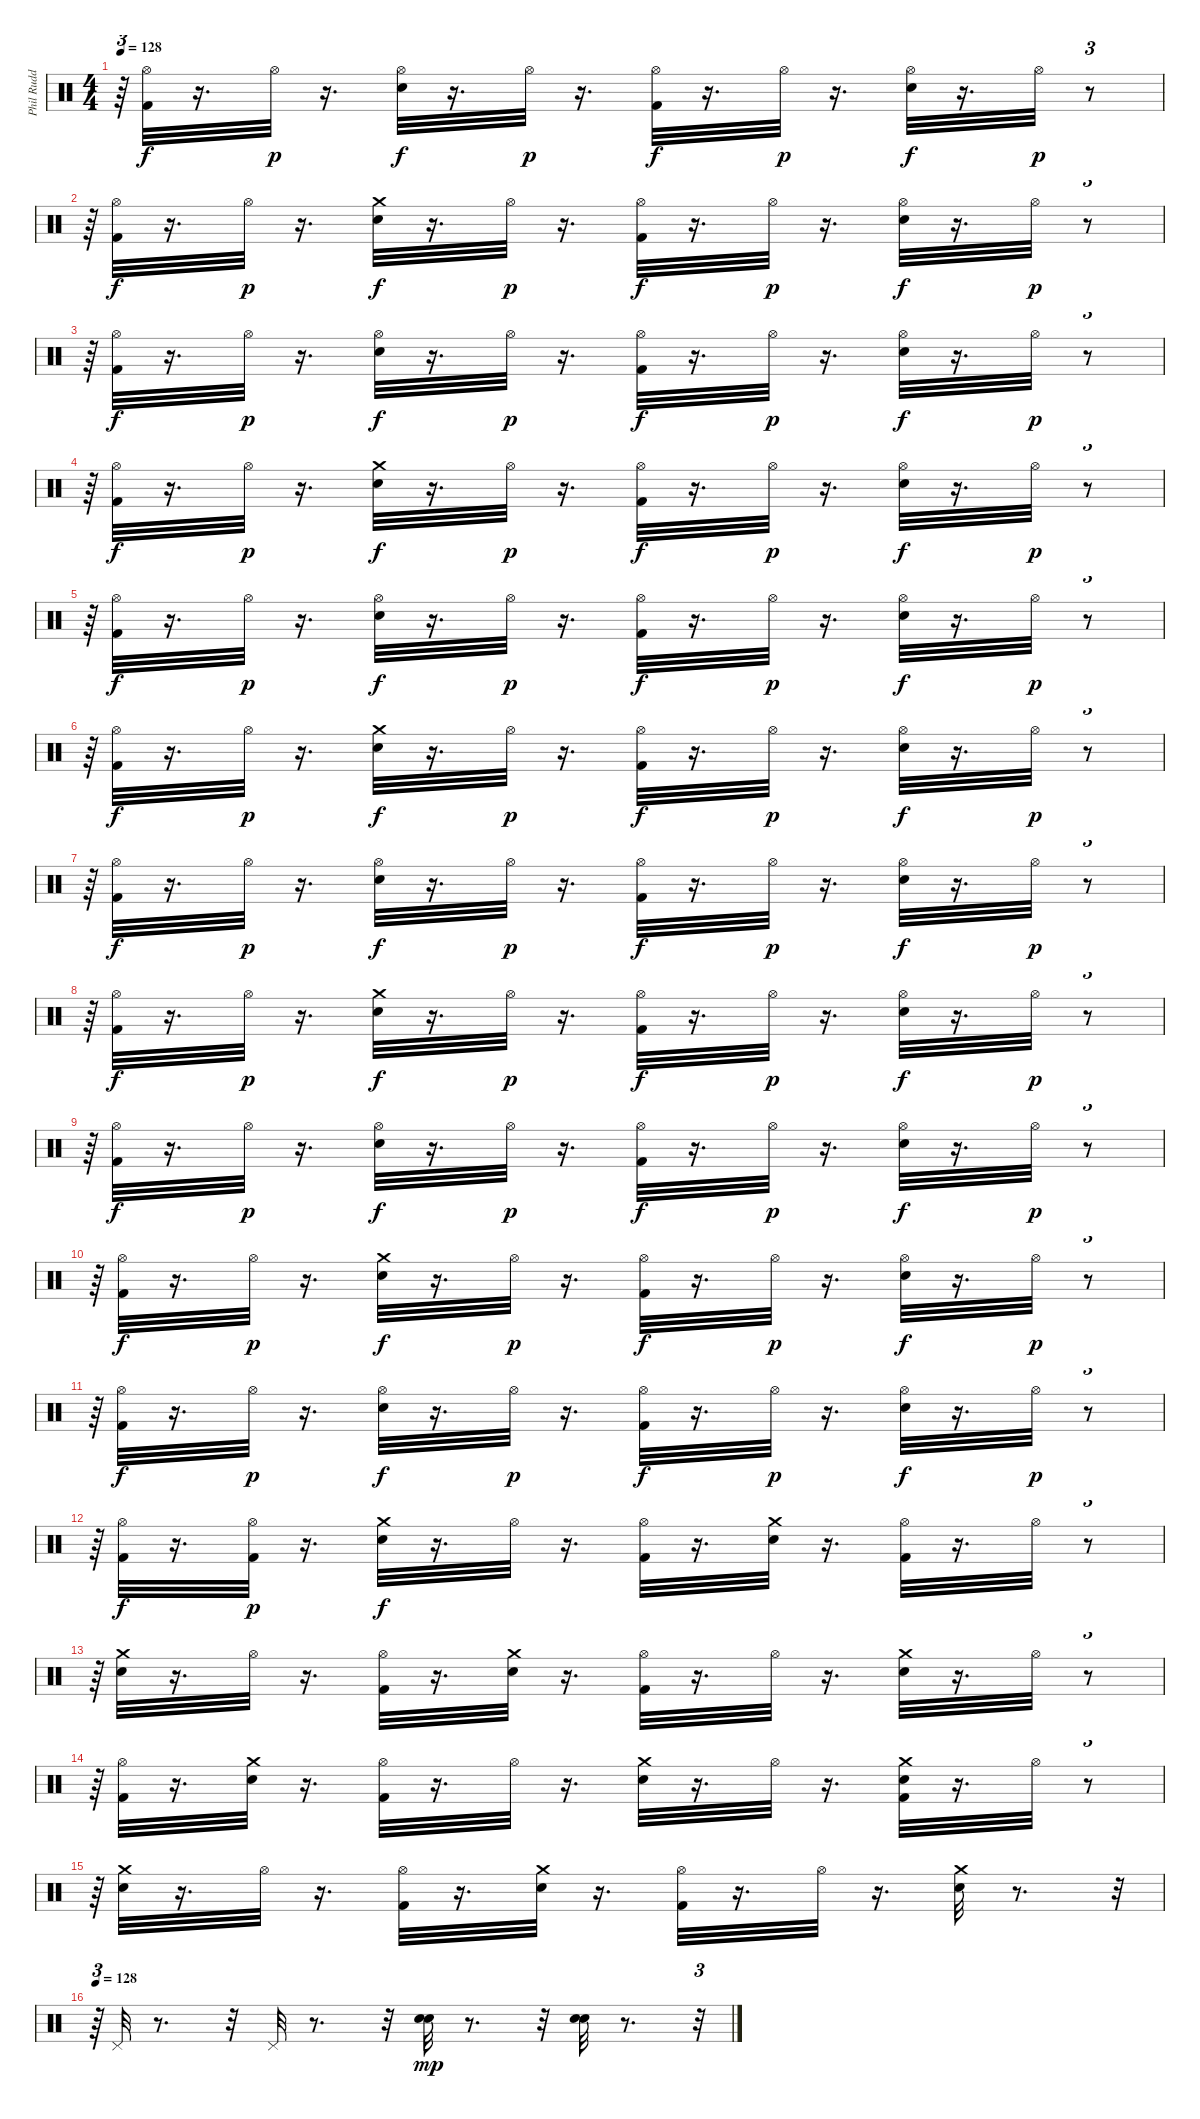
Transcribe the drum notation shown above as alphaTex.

\track ("Phil Rudd" "Phil Rudd") {instrument percussion}
\staff {score}
\articulation defaults
\ts (4 4)
\tempo 128
\clef neutral
\ks c
r.64{tu (3 2) dy p} ("Hi-Hat (open)" "Kick (hit) 2").32{dy f} r.16{d} "Hi-Hat (open)".32{dy p} r.16{d} ("Hi-Hat (open)" "Electric Snare (hit)").32{dy f} r.16{d} "Hi-Hat (open)".32{dy p} r.16{d} ("Hi-Hat (open)" "Kick (hit) 2").32{dy f} r.16{d} "Hi-Hat (open)".32{dy p} r.16{d} ("Hi-Hat (open)" "Electric Snare (hit)").32{dy f} r.16{d} "Hi-Hat (open)".32{dy p} r.8{tu (3 2)} |
r.64{tu (3 2)} ("Hi-Hat (open)" "Kick (hit) 2").32{dy f} r.16{d} "Hi-Hat (open)".32{dy p} r.16{d} ("Crash medium (hit)" "Electric Snare (hit)").32{dy f} r.16{d} "Hi-Hat (open)".32{dy p} r.16{d} ("Hi-Hat (open)" "Kick (hit) 2").32{dy f} r.16{d} "Hi-Hat (open)".32{dy p} r.16{d} ("Hi-Hat (open)" "Electric Snare (hit)").32{dy f} r.16{d} "Hi-Hat (open)".32{dy p} r.8{tu (3 2)} |
r.64{tu (3 2)} ("Hi-Hat (open)" "Kick (hit) 2").32{dy f} r.16{d} "Hi-Hat (open)".32{dy p} r.16{d} ("Hi-Hat (open)" "Electric Snare (hit)").32{dy f} r.16{d} "Hi-Hat (open)".32{dy p} r.16{d} ("Hi-Hat (open)" "Kick (hit) 2").32{dy f} r.16{d} "Hi-Hat (open)".32{dy p} r.16{d} ("Hi-Hat (open)" "Electric Snare (hit)").32{dy f} r.16{d} "Hi-Hat (open)".32{dy p} r.8{tu (3 2)} |
r.64{tu (3 2)} ("Hi-Hat (open)" "Kick (hit) 2").32{dy f} r.16{d} "Hi-Hat (open)".32{dy p} r.16{d} ("Crash medium (hit)" "Electric Snare (hit)").32{dy f} r.16{d} "Hi-Hat (open)".32{dy p} r.16{d} ("Hi-Hat (open)" "Kick (hit) 2").32{dy f} r.16{d} "Hi-Hat (open)".32{dy p} r.16{d} ("Hi-Hat (open)" "Electric Snare (hit)").32{dy f} r.16{d} "Hi-Hat (open)".32{dy p} r.8{tu (3 2)} |
r.64{tu (3 2)} ("Hi-Hat (open)" "Kick (hit) 2").32{dy f} r.16{d} "Hi-Hat (open)".32{dy p} r.16{d} ("Hi-Hat (open)" "Electric Snare (hit)").32{dy f} r.16{d} "Hi-Hat (open)".32{dy p} r.16{d} ("Hi-Hat (open)" "Kick (hit) 2").32{dy f} r.16{d} "Hi-Hat (open)".32{dy p} r.16{d} ("Hi-Hat (open)" "Electric Snare (hit)").32{dy f} r.16{d} "Hi-Hat (open)".32{dy p} r.8{tu (3 2)} |
r.64{tu (3 2)} ("Hi-Hat (open)" "Kick (hit) 2").32{dy f} r.16{d} "Hi-Hat (open)".32{dy p} r.16{d} ("Crash medium (hit)" "Electric Snare (hit)").32{dy f} r.16{d} "Hi-Hat (open)".32{dy p} r.16{d} ("Hi-Hat (open)" "Kick (hit) 2").32{dy f} r.16{d} "Hi-Hat (open)".32{dy p} r.16{d} ("Hi-Hat (open)" "Electric Snare (hit)").32{dy f} r.16{d} "Hi-Hat (open)".32{dy p} r.8{tu (3 2)} |
r.64{tu (3 2)} ("Hi-Hat (open)" "Kick (hit) 2").32{dy f} r.16{d} "Hi-Hat (open)".32{dy p} r.16{d} ("Hi-Hat (open)" "Electric Snare (hit)").32{dy f} r.16{d} "Hi-Hat (open)".32{dy p} r.16{d} ("Hi-Hat (open)" "Kick (hit) 2").32{dy f} r.16{d} "Hi-Hat (open)".32{dy p} r.16{d} ("Hi-Hat (open)" "Electric Snare (hit)").32{dy f} r.16{d} "Hi-Hat (open)".32{dy p} r.8{tu (3 2)} |
r.64{tu (3 2)} ("Hi-Hat (open)" "Kick (hit) 2").32{dy f} r.16{d} "Hi-Hat (open)".32{dy p} r.16{d} ("Crash medium (hit)" "Electric Snare (hit)").32{dy f} r.16{d} "Hi-Hat (open)".32{dy p} r.16{d} ("Hi-Hat (open)" "Kick (hit) 2").32{dy f} r.16{d} "Hi-Hat (open)".32{dy p} r.16{d} ("Hi-Hat (open)" "Electric Snare (hit)").32{dy f} r.16{d} "Hi-Hat (open)".32{dy p} r.8{tu (3 2)} |
r.64{tu (3 2)} ("Hi-Hat (open)" "Kick (hit) 2").32{dy f} r.16{d} "Hi-Hat (open)".32{dy p} r.16{d} ("Hi-Hat (open)" "Electric Snare (hit)").32{dy f} r.16{d} "Hi-Hat (open)".32{dy p} r.16{d} ("Hi-Hat (open)" "Kick (hit) 2").32{dy f} r.16{d} "Hi-Hat (open)".32{dy p} r.16{d} ("Hi-Hat (open)" "Electric Snare (hit)").32{dy f} r.16{d} "Hi-Hat (open)".32{dy p} r.8{tu (3 2)} |
r.64{tu (3 2)} ("Hi-Hat (open)" "Kick (hit) 2").32{dy f} r.16{d} "Hi-Hat (open)".32{dy p} r.16{d} ("Crash medium (hit)" "Electric Snare (hit)").32{dy f} r.16{d} "Hi-Hat (open)".32{dy p} r.16{d} ("Hi-Hat (open)" "Kick (hit) 2").32{dy f} r.16{d} "Hi-Hat (open)".32{dy p} r.16{d} ("Hi-Hat (open)" "Electric Snare (hit)").32{dy f} r.16{d} "Hi-Hat (open)".32{dy p} r.8{tu (3 2)} |
r.64{tu (3 2)} ("Hi-Hat (open)" "Kick (hit) 2").32{dy f} r.16{d} "Hi-Hat (open)".32{dy p} r.16{d} ("Hi-Hat (open)" "Electric Snare (hit)").32{dy f} r.16{d} "Hi-Hat (open)".32{dy p} r.16{d} ("Hi-Hat (open)" "Kick (hit) 2").32{dy f} r.16{d} "Hi-Hat (open)".32{dy p} r.16{d} ("Hi-Hat (open)" "Electric Snare (hit)").32{dy f} r.16{d} "Hi-Hat (open)".32{dy p} r.8{tu (3 2)} |
r.64{tu (3 2)} ("Hi-Hat (open)" "Kick (hit) 2").32{dy f} r.16{d} ("Kick (hit) 2" "Hi-Hat (open)").32{dy p} r.16{d} ("Crash medium (hit)" "Electric Snare (hit)").32{dy f} r.16{d} "Hi-Hat (open)".32 r.16{d} ("Hi-Hat (open)" "Kick (hit) 2").32 r.16{d} ("Crash medium (hit)" "Electric Snare (hit)").32 r.16{d} ("Hi-Hat (open)" "Kick (hit) 2").32 r.16{d} "Hi-Hat (open)".32 r.8{tu (3 2)} |
r.64{tu (3 2)} ("Crash medium (hit)" "Electric Snare (hit)").32 r.16{d} "Hi-Hat (open)".32 r.16{d} ("Hi-Hat (open)" "Kick (hit) 2").32 r.16{d} ("Crash medium (hit)" "Electric Snare (hit)").32 r.16{d} ("Hi-Hat (open)" "Kick (hit) 2").32 r.16{d} "Hi-Hat (open)".32 r.16{d} ("Crash medium (hit)" "Electric Snare (hit)").32 r.16{d} "Hi-Hat (open)".32 r.8{tu (3 2)} |
r.64{tu (3 2)} ("Hi-Hat (open)" "Kick (hit) 2").32 r.16{d} ("Crash medium (hit)" "Electric Snare (hit)").32 r.16{d} ("Hi-Hat (open)" "Kick (hit) 2").32 r.16{d} "Hi-Hat (open)".32 r.16{d} ("Crash medium (hit)" "Electric Snare (hit)").32 r.16{d} "Hi-Hat (open)".32 r.16{d} ("Crash medium (hit)" "Kick (hit) 2" "Electric Snare (hit)").32 r.16{d} "Hi-Hat (open)".32 r.8{tu (3 2)} |
r.64{tu (3 2)} ("Crash medium (hit)" "Electric Snare (hit)").32 r.16{d} "Hi-Hat (open)".32 r.16{d} ("Hi-Hat (open)" "Kick (hit) 2").32 r.16{d} ("Crash medium (hit)" "Electric Snare (hit)").32 r.16{d} ("Hi-Hat (open)" "Kick (hit) 2").32 r.16{d} "Hi-Hat (open)".32 r.16{d} ("Crash medium (hit)" "Electric Snare (hit)").32 r.8{d} r.32{tu (3 2)} |
\tempo 128
r.64{tu (3 2)} "Pedal Hi-Hat (hit)".32 r.8{d} r.32 "Pedal Hi-Hat (hit)".32 r.8{d} r.32 ("Electric Snare (hit)" "Snare (hit) 2").32{dy mp} r.8{d} r.32 ("Electric Snare (hit)" "Snare (hit) 2").32 r.8{d} r.32{tu (3 2)}
